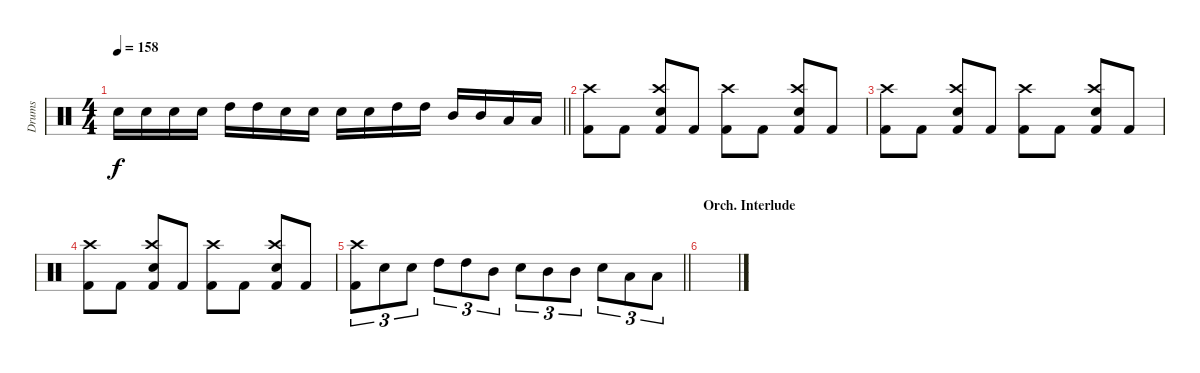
\track ("Drums" "Drums") {instrument percussion}
\staff {score}
\articulation defaults
\ts (4 4)
\tempo 158
\clef neutral
\barLineRight lightlight
\ks c "Snare (hit) 2".16{dy f} "Snare (hit) 2".16 "Snare (hit) 2".16 "Snare (hit) 2".16 "High Tom (hit)".16 "High Tom (hit)".16 "Snare (hit) 2".16 "Snare (hit) 2".16 "Snare (hit) 2".16 "Snare (hit) 2".16 "High Tom (hit)".16 "High Tom (hit)".16 "Mid Tom (hit)".16 "Mid Tom (hit)".16 "Low Tom (hit)".16 "Low Tom (hit)".16
|
("Crash high (hit)" "Kick (hit) 2").8 "Kick (hit) 2".8 ("Crash high (hit)" "Snare (hit) 2" "Kick (hit) 2").8 "Kick (hit) 2".8 ("Crash high (hit)" "Kick (hit) 2").8 "Kick (hit) 2".8 ("Crash high (hit)" "Snare (hit) 2" "Kick (hit) 2").8 "Kick (hit) 2".8 |
("Crash high (hit)" "Kick (hit) 2").8 "Kick (hit) 2".8 ("Crash high (hit)" "Snare (hit) 2" "Kick (hit) 2").8 "Kick (hit) 2".8 ("Crash high (hit)" "Kick (hit) 2").8 "Kick (hit) 2".8 ("Crash high (hit)" "Snare (hit) 2" "Kick (hit) 2").8 "Kick (hit) 2".8 |
("Crash high (hit)" "Kick (hit) 2").8 "Kick (hit) 2".8 ("Crash high (hit)" "Snare (hit) 2" "Kick (hit) 2").8 "Kick (hit) 2".8 ("Crash high (hit)" "Kick (hit) 2").8 "Kick (hit) 2".8 ("Crash high (hit)" "Snare (hit) 2" "Kick (hit) 2").8 "Kick (hit) 2".8 |
\barLineRight lightlight
("Crash high (hit)" "Kick (hit) 2").8{tu (3 2)} "Snare (hit) 2".8{tu (3 2)} "Snare (hit) 2".8{tu (3 2)} "High Tom (hit)".8{tu (3 2)} "High Tom (hit)".8{tu (3 2)} "Mid Tom (hit)".8{tu (3 2)} "Snare (hit) 2".8{tu (3 2)} "Mid Tom (hit)".8{tu (3 2)} "Mid Tom (hit)".8{tu (3 2)} "Snare (hit) 2".8{tu (3 2)} "Low Tom (hit)".8{tu (3 2)} "Low Tom (hit)".8{tu (3 2)} |
\section ("" "Orch. Interlude")
